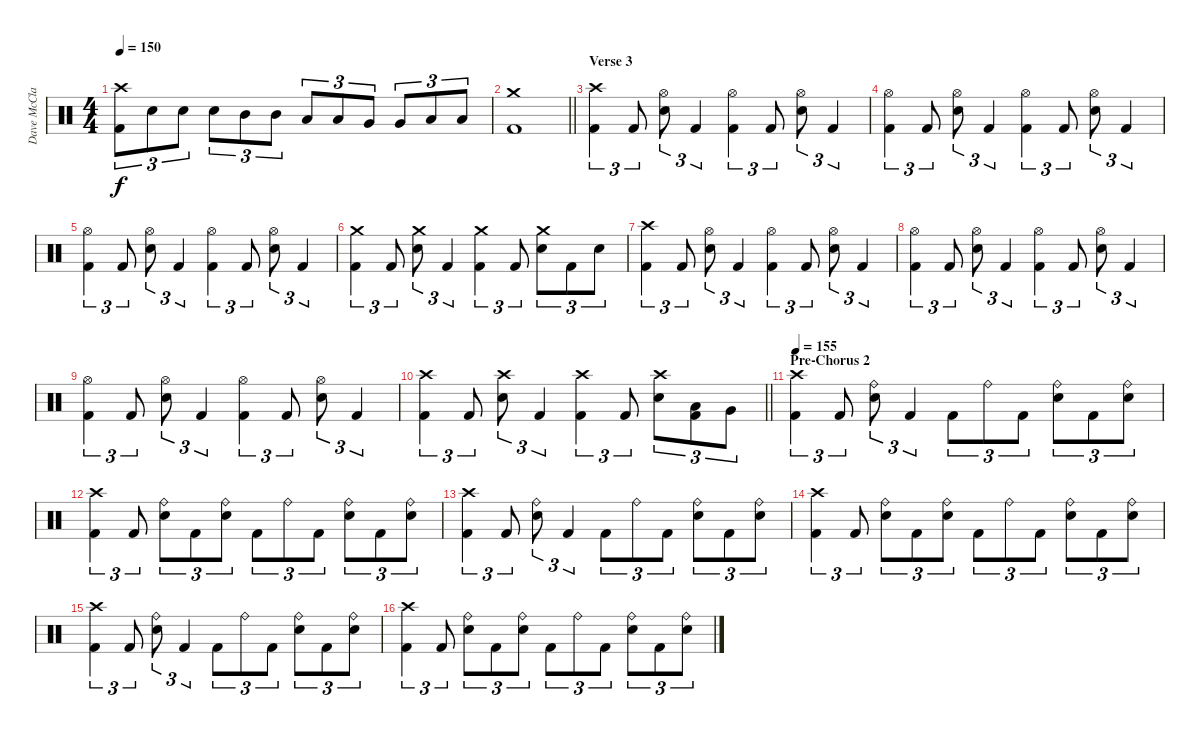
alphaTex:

\track ("Dave McClain" "Dave McCla") {instrument percussion}
\staff {score}
\articulation defaults
\ts (4 4)
\tempo 150
\clef neutral
\ks c
("Crash high (hit)" "Kick (hit) 2").8{tu (3 2) dy f} "Snare (hit) 2".8{tu (3 2)} "Snare (hit) 2".8{tu (3 2)} "Snare (hit) 2".8{tu (3 2)} "Mid Tom (hit)".8{tu (3 2)} "Mid Tom (hit)".8{tu (3 2)} "Low Tom (hit)".8{tu (3 2)} "Low Tom (hit)".8{tu (3 2)} "Very Low Tom (hit)".8{tu (3 2)} "Very Low Tom (hit)".8{tu (3 2)} "Low Tom (hit)".8{tu (3 2)} "Low Tom (hit)".8{tu (3 2)} |
\barLineRight lightlight
("Crash medium (hit)" "Kick (hit) 2").1 |
\section ("" "Verse 3")
("Crash high (hit)" "Kick (hit) 2").4{tu (3 2)} "Kick (hit) 2".8{tu (3 2)} ("Hi-Hat (open)" "Snare (hit) 2").8{tu (3 2)} "Kick (hit) 2".4{tu (3 2)} ("Hi-Hat (open)" "Kick (hit) 2").4{tu (3 2)} "Kick (hit) 2".8{tu (3 2)} ("Hi-Hat (open)" "Snare (hit) 2").8{tu (3 2)} "Kick (hit) 2".4{tu (3 2)} |
("Hi-Hat (open)" "Kick (hit) 2").4{tu (3 2)} "Kick (hit) 2".8{tu (3 2)} ("Hi-Hat (open)" "Snare (hit) 2").8{tu (3 2)} "Kick (hit) 2".4{tu (3 2)} ("Hi-Hat (open)" "Kick (hit) 2").4{tu (3 2)} "Kick (hit) 2".8{tu (3 2)} ("Hi-Hat (open)" "Snare (hit) 2").8{tu (3 2)} "Kick (hit) 2".4{tu (3 2)} |
("Hi-Hat (open)" "Kick (hit) 2").4{tu (3 2)} "Kick (hit) 2".8{tu (3 2)} ("Hi-Hat (open)" "Snare (hit) 2").8{tu (3 2)} "Kick (hit) 2".4{tu (3 2)} ("Hi-Hat (open)" "Kick (hit) 2").4{tu (3 2)} "Kick (hit) 2".8{tu (3 2)} ("Hi-Hat (open)" "Snare (hit) 2").8{tu (3 2)} "Kick (hit) 2".4{tu (3 2)} |
("Crash medium (hit)" "Kick (hit) 2").4{tu (3 2)} "Kick (hit) 2".8{tu (3 2)} ("Crash medium (hit)" "Snare (hit) 2").8{tu (3 2)} "Kick (hit) 2".4{tu (3 2)} ("Crash medium (hit)" "Kick (hit) 2").4{tu (3 2)} "Kick (hit) 2".8{tu (3 2)} ("Crash medium (hit)" "Snare (hit) 2").8{tu (3 2)} "Kick (hit) 2".8{tu (3 2)} "Snare (hit) 2".8{tu (3 2)} |
("Crash high (hit)" "Kick (hit) 2").4{tu (3 2)} "Kick (hit) 2".8{tu (3 2)} ("Hi-Hat (open)" "Snare (hit) 2").8{tu (3 2)} "Kick (hit) 2".4{tu (3 2)} ("Hi-Hat (open)" "Kick (hit) 2").4{tu (3 2)} "Kick (hit) 2".8{tu (3 2)} ("Hi-Hat (open)" "Snare (hit) 2").8{tu (3 2)} "Kick (hit) 2".4{tu (3 2)} |
("Hi-Hat (open)" "Kick (hit) 2").4{tu (3 2)} "Kick (hit) 2".8{tu (3 2)} ("Hi-Hat (open)" "Snare (hit) 2").8{tu (3 2)} "Kick (hit) 2".4{tu (3 2)} ("Hi-Hat (open)" "Kick (hit) 2").4{tu (3 2)} "Kick (hit) 2".8{tu (3 2)} ("Hi-Hat (open)" "Snare (hit) 2").8{tu (3 2)} "Kick (hit) 2".4{tu (3 2)} |
("Hi-Hat (open)" "Kick (hit) 2").4{tu (3 2)} "Kick (hit) 2".8{tu (3 2)} ("Hi-Hat (open)" "Snare (hit) 2").8{tu (3 2)} "Kick (hit) 2".4{tu (3 2)} ("Hi-Hat (open)" "Kick (hit) 2").4{tu (3 2)} "Kick (hit) 2".8{tu (3 2)} ("Hi-Hat (open)" "Snare (hit) 2").8{tu (3 2)} "Kick (hit) 2".4{tu (3 2)} |
\barLineRight lightlight
("Crash high (hit)" "Kick (hit) 2").4{tu (3 2)} "Kick (hit) 2".8{tu (3 2)} ("Crash high (hit)" "Snare (hit) 2").8{tu (3 2)} "Kick (hit) 2".4{tu (3 2)} ("Crash high (hit)" "Kick (hit) 2").4{tu (3 2)} "Kick (hit) 2".8{tu (3 2)} ("Crash high (hit)" "Snare (hit) 2").8{tu (3 2)} ("Low Tom (hit)" "Kick (hit) 2").8{tu (3 2)} "Very Low Tom (hit)".8{tu (3 2)} |
\section ("" "Pre-Chorus 2")
\tempo 155
("Crash high (hit)" "Kick (hit) 2").4{tu (3 2)} "Kick (hit) 2".8{tu (3 2)} ("Ride (bell)" "Snare (hit) 2").8{tu (3 2)} "Kick (hit) 2".4{tu (3 2)} "Kick (hit) 2".8{tu (3 2)} "Ride (bell)".8{tu (3 2)} "Kick (hit) 2".8{tu (3 2)} ("Ride (bell)" "Snare (hit) 2").8{tu (3 2)} "Kick (hit) 2".8{tu (3 2)} ("Ride (bell)" "Snare (hit) 2").8{tu (3 2)} |
("Crash high (hit)" "Kick (hit) 2").4{tu (3 2)} "Kick (hit) 2".8{tu (3 2)} ("Ride (bell)" "Snare (hit) 2").8{tu (3 2)} "Kick (hit) 2".8{tu (3 2)} ("Ride (bell)" "Snare (hit) 2").8{tu (3 2)} "Kick (hit) 2".8{tu (3 2)} "Ride (bell)".8{tu (3 2)} "Kick (hit) 2".8{tu (3 2)} ("Ride (bell)" "Snare (hit) 2").8{tu (3 2)} "Kick (hit) 2".8{tu (3 2)} ("Ride (bell)" "Snare (hit) 2").8{tu (3 2)} |
("Crash high (hit)" "Kick (hit) 2").4{tu (3 2)} "Kick (hit) 2".8{tu (3 2)} ("Ride (bell)" "Snare (hit) 2").8{tu (3 2)} "Kick (hit) 2".4{tu (3 2)} "Kick (hit) 2".8{tu (3 2)} "Ride (bell)".8{tu (3 2)} "Kick (hit) 2".8{tu (3 2)} ("Ride (bell)" "Snare (hit) 2").8{tu (3 2)} "Kick (hit) 2".8{tu (3 2)} ("Ride (bell)" "Snare (hit) 2").8{tu (3 2)} |
("Crash high (hit)" "Kick (hit) 2").4{tu (3 2)} "Kick (hit) 2".8{tu (3 2)} ("Ride (bell)" "Snare (hit) 2").8{tu (3 2)} "Kick (hit) 2".8{tu (3 2)} ("Ride (bell)" "Snare (hit) 2").8{tu (3 2)} "Kick (hit) 2".8{tu (3 2)} "Ride (bell)".8{tu (3 2)} "Kick (hit) 2".8{tu (3 2)} ("Ride (bell)" "Snare (hit) 2").8{tu (3 2)} "Kick (hit) 2".8{tu (3 2)} ("Ride (bell)" "Snare (hit) 2").8{tu (3 2)} |
("Crash high (hit)" "Kick (hit) 2").4{tu (3 2)} "Kick (hit) 2".8{tu (3 2)} ("Ride (bell)" "Snare (hit) 2").8{tu (3 2)} "Kick (hit) 2".4{tu (3 2)} "Kick (hit) 2".8{tu (3 2)} "Ride (bell)".8{tu (3 2)} "Kick (hit) 2".8{tu (3 2)} ("Ride (bell)" "Snare (hit) 2").8{tu (3 2)} "Kick (hit) 2".8{tu (3 2)} ("Ride (bell)" "Snare (hit) 2").8{tu (3 2)} |
("Crash high (hit)" "Kick (hit) 2").4{tu (3 2)} "Kick (hit) 2".8{tu (3 2)} ("Ride (bell)" "Snare (hit) 2").8{tu (3 2)} "Kick (hit) 2".8{tu (3 2)} ("Ride (bell)" "Snare (hit) 2").8{tu (3 2)} "Kick (hit) 2".8{tu (3 2)} "Ride (bell)".8{tu (3 2)} "Kick (hit) 2".8{tu (3 2)} ("Ride (bell)" "Snare (hit) 2").8{tu (3 2)} "Kick (hit) 2".8{tu (3 2)} ("Ride (bell)" "Snare (hit) 2").8{tu (3 2)}
